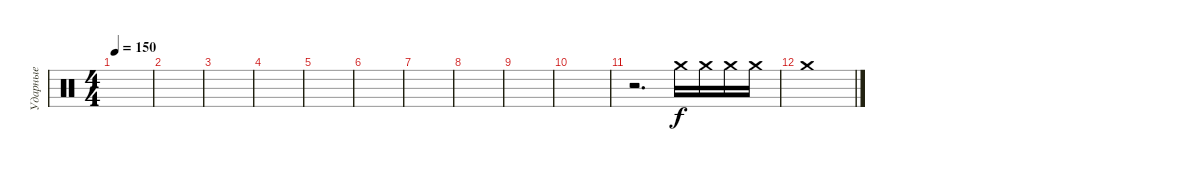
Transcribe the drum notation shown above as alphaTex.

\track ("Ударные" "Ударные") {instrument percussion}
\staff {score}
\articulation defaults
\ts (4 4)
\tempo 150
\clef neutral
\ks c
|
|
|
|
|
|
|
|
|
|
r.2{d} "Crash medium (hit)".16 "Crash medium (hit)".16 "Crash medium (hit)".16 "Crash medium (hit)".16 |
"Crash medium (hit)".1
